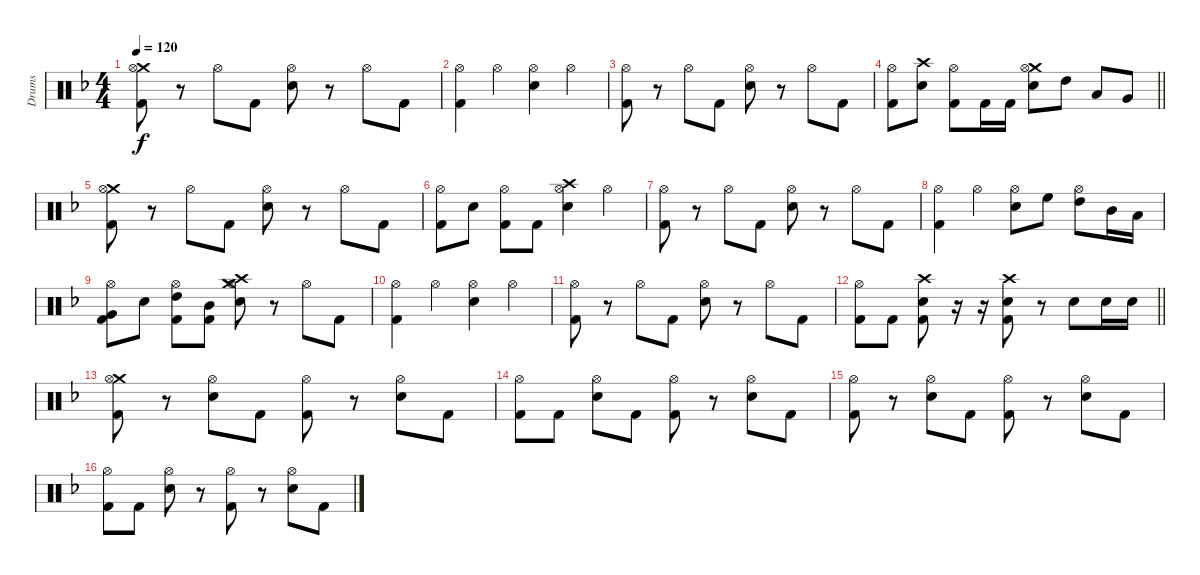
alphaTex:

\track ("Drums" "Drums") {instrument percussion}
\staff {score}
\articulation defaults
\ts (4 4)
\tempo 120
\clef neutral
\ks dminor
("Crash medium (hit)" "Hi-Hat (open)" "Kick (hit) 2").8{dy f} r.8 "Hi-Hat (open)".8 "Kick (hit) 2".8 ("Hi-Hat (open)" "Electric Snare (hit)").8 r.8 "Hi-Hat (open)".8 "Kick (hit) 2".8 |
("Hi-Hat (open)" "Kick (hit) 2").4 "Hi-Hat (open)".4 ("Hi-Hat (open)" "Electric Snare (hit)").4 "Hi-Hat (open)".4 |
("Hi-Hat (open)" "Kick (hit) 2").8 r.8 "Hi-Hat (open)".8 "Kick (hit) 2".8 ("Hi-Hat (open)" "Electric Snare (hit)").8 r.8 "Hi-Hat (open)".8 "Kick (hit) 2".8 |
\barLineRight lightlight
("Hi-Hat (open)" "Kick (hit) 2").8 ("Crash high (hit)" "Electric Snare (hit)").8 ("Hi-Hat (open)" "Kick (hit) 2").8 "Kick (hit) 2".16 "Kick (hit) 2".16 ("Crash medium (hit)" "Hi-Hat (open)" "Electric Snare (hit)").8 "High Tom (hit)".8 "Low Tom (hit)".8 "Very Low Tom (hit)".8 |
\section ("" "")
("Crash medium (hit)" "Hi-Hat (open)" "Kick (hit) 2").8 r.8 "Hi-Hat (open)".8 "Kick (hit) 2".8 ("Hi-Hat (open)" "Electric Snare (hit)").8 r.8 "Hi-Hat (open)".8 "Kick (hit) 2".8 |
("Hi-Hat (open)" "Kick (hit) 2").8 "Electric Snare (hit)".8 ("Hi-Hat (open)" "Kick (hit) 2").8 "Kick (hit) 2".8 ("Crash high (hit)" "Hi-Hat (open)" "Electric Snare (hit)").4 "Hi-Hat (open)".4 |
("Hi-Hat (open)" "Kick (hit) 2").8 r.8 "Hi-Hat (open)".8 "Kick (hit) 2".8 ("Hi-Hat (open)" "Electric Snare (hit)").8 r.8 "Hi-Hat (open)".8 "Kick (hit) 2".8 |
("Hi-Hat (open)" "Kick (hit) 2").4 "Hi-Hat (open)".4 ("Hi-Hat (open)" "Electric Snare (hit)").8 "High Floor Tom (hit)".8 ("Hi-Hat (open)" "High Tom (hit)").8 "Mid Tom (hit)".16 "Low Tom (hit)".16 |
("Hi-Hat (open)" "Very Low Tom (hit)" "Kick (hit) 2").8 "Electric Snare (hit)".8 ("Hi-Hat (open)" "High Tom (hit)" "Kick (hit) 2").8 ("Mid Tom (hit)" "Kick (hit) 2").8 ("Crash medium (hit)" "Crash high (hit)" "Hi-Hat (open)" "Electric Snare (hit)").8 r.8 "Hi-Hat (open)".8 "Kick (hit) 2".8 |
("Hi-Hat (open)" "Kick (hit) 2").4 "Hi-Hat (open)".4 ("Hi-Hat (open)" "Electric Snare (hit)").4 "Hi-Hat (open)".4 |
("Hi-Hat (open)" "Kick (hit) 2").8 r.8 "Hi-Hat (open)".8 "Kick (hit) 2".8 ("Hi-Hat (open)" "Electric Snare (hit)").8 r.8 "Hi-Hat (open)".8 "Kick (hit) 2".8 |
\barLineRight lightlight
("Hi-Hat (open)" "Kick (hit) 2").8 "Kick (hit) 2".8 ("Crash high (hit)" "Electric Snare (hit)" "Kick (hit) 2").8 r.16 r.16 ("Crash high (hit)" "Electric Snare (hit)" "Kick (hit) 2").8 r.8 "Electric Snare (hit)".8 "Electric Snare (hit)".16 "Electric Snare (hit)".16 |
\section ("" "")
("Crash medium (hit)" "Hi-Hat (open)" "Kick (hit) 2").8 r.8 ("Hi-Hat (open)" "Electric Snare (hit)").8 "Kick (hit) 2".8 ("Hi-Hat (open)" "Kick (hit) 2").8 r.8 ("Hi-Hat (open)" "Electric Snare (hit)").8 "Kick (hit) 2".8 |
("Hi-Hat (open)" "Kick (hit) 2").8 "Kick (hit) 2".8 ("Hi-Hat (open)" "Electric Snare (hit)").8 "Kick (hit) 2".8 ("Hi-Hat (open)" "Kick (hit) 2").8 r.8 ("Hi-Hat (open)" "Electric Snare (hit)").8 "Kick (hit) 2".8 |
("Hi-Hat (open)" "Kick (hit) 2").8 r.8 ("Hi-Hat (open)" "Electric Snare (hit)").8 "Kick (hit) 2".8 ("Hi-Hat (open)" "Kick (hit) 2").8 r.8 ("Hi-Hat (open)" "Electric Snare (hit)").8 "Kick (hit) 2".8 |
("Hi-Hat (open)" "Kick (hit) 2").8 "Kick (hit) 2".8 ("Hi-Hat (open)" "Electric Snare (hit)").8 r.8 ("Hi-Hat (open)" "Kick (hit) 2").8 r.8 ("Hi-Hat (open)" "Electric Snare (hit)").8 "Kick (hit) 2".8
